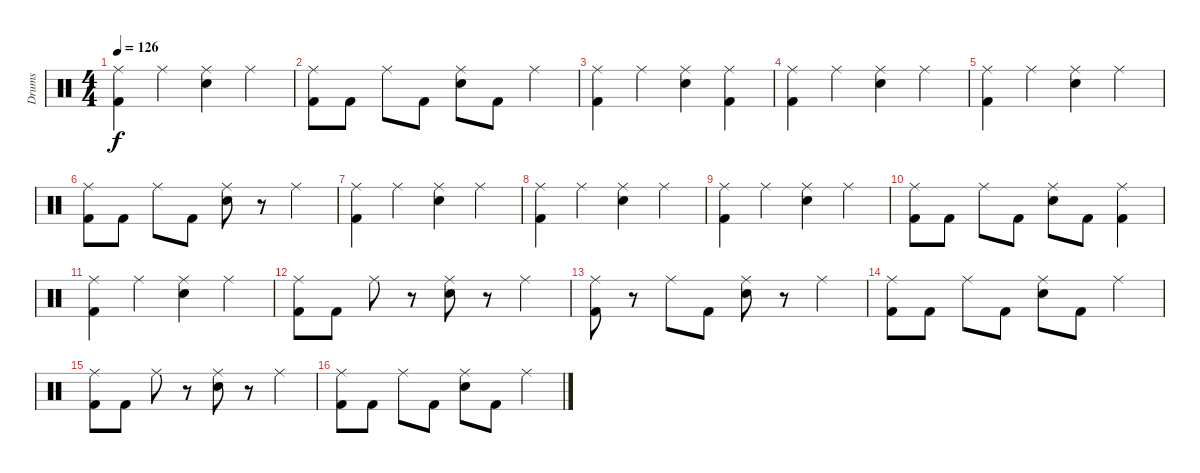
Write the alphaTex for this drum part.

\track ("Drums" "Drums") {instrument percussion}
\staff {score}
\articulation defaults
\ts (4 4)
\tempo 126
\clef neutral
\ks c
("Kick (hit) 2" "Ride (middle)").4{dy f} "Ride (middle)".4 ("Snare (hit) 2" "Ride (middle)").4 "Ride (middle)".4 |
("Kick (hit) 2" "Ride (middle)").8 "Kick (hit) 2".8 "Ride (middle)".8 "Kick (hit) 2".8 ("Snare (hit) 2" "Ride (middle)").8 "Kick (hit) 2".8 "Ride (middle)".4 |
("Kick (hit) 2" "Ride (middle)").4 "Ride (middle)".4 ("Snare (hit) 2" "Ride (middle)").4 ("Kick (hit) 2" "Ride (middle)").4 |
("Kick (hit) 2" "Ride (middle)").4 "Ride (middle)".4 ("Snare (hit) 2" "Ride (middle)").4 "Ride (middle)".4 |
("Kick (hit) 2" "Ride (middle)").4 "Ride (middle)".4 ("Snare (hit) 2" "Ride (middle)").4 "Ride (middle)".4 |
("Kick (hit) 2" "Ride (middle)").8 "Kick (hit) 2".8 "Ride (middle)".8 "Kick (hit) 2".8 ("Snare (hit) 2" "Ride (middle)").8 r.8 "Ride (middle)".4 |
("Kick (hit) 2" "Ride (middle)").4 "Ride (middle)".4 ("Snare (hit) 2" "Ride (middle)").4 "Ride (middle)".4 |
("Kick (hit) 2" "Ride (middle)").4 "Ride (middle)".4 ("Snare (hit) 2" "Ride (middle)").4 "Ride (middle)".4 |
("Kick (hit) 2" "Ride (middle)").4 "Ride (middle)".4 ("Snare (hit) 2" "Ride (middle)").4 "Ride (middle)".4 |
("Kick (hit) 2" "Ride (middle)").8 "Kick (hit) 2".8 "Ride (middle)".8 "Kick (hit) 2".8 ("Snare (hit) 2" "Ride (middle)").8 "Kick (hit) 2".8 ("Kick (hit) 2" "Ride (middle)").4 |
("Kick (hit) 2" "Ride (middle)").4 "Ride (middle)".4 ("Snare (hit) 2" "Ride (middle)").4 "Ride (middle)".4 |
("Kick (hit) 2" "Ride (middle)").8 "Kick (hit) 2".8 "Ride (middle)".8 r.8 ("Snare (hit) 2" "Ride (middle)").8 r.8 "Ride (middle)".4 |
("Kick (hit) 2" "Ride (middle)").8 r.8 "Ride (middle)".8 "Kick (hit) 2".8 ("Snare (hit) 2" "Ride (middle)").8 r.8 "Ride (middle)".4 |
("Kick (hit) 2" "Ride (middle)").8 "Kick (hit) 2".8 "Ride (middle)".8 "Kick (hit) 2".8 ("Snare (hit) 2" "Ride (middle)").8 "Kick (hit) 2".8 "Ride (middle)".4 |
("Kick (hit) 2" "Ride (middle)").8 "Kick (hit) 2".8 "Ride (middle)".8 r.8 ("Snare (hit) 2" "Ride (middle)").8 r.8 "Ride (middle)".4 |
("Kick (hit) 2" "Ride (middle)").8 "Kick (hit) 2".8 "Ride (middle)".8 "Kick (hit) 2".8 ("Snare (hit) 2" "Ride (middle)").8 "Kick (hit) 2".8 "Ride (middle)".4
